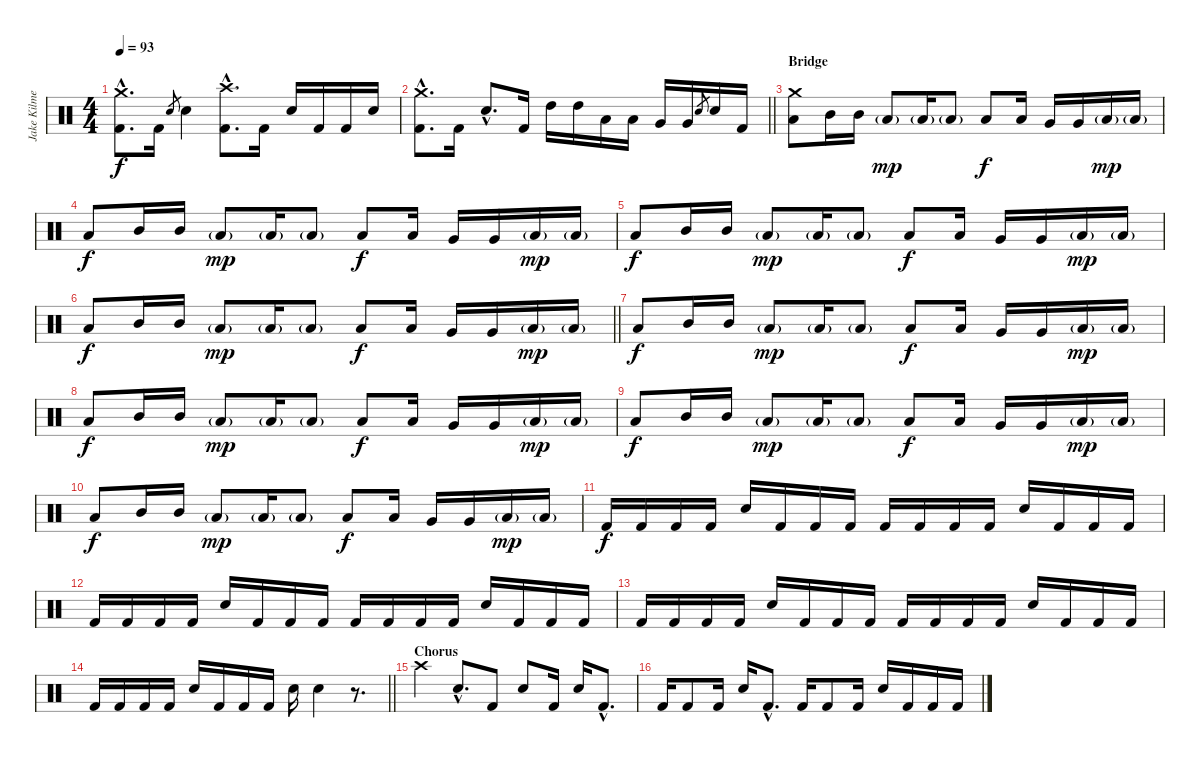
\track ("Jake Kilmer (Drums)" "Jake Kilme") {instrument percussion}
\staff {score}
\articulation defaults
\ts (4 4)
\tempo 93
\clef neutral
\ks c
("Crash medium (hit)"{hac} "Kick (hit) 2"{hac}).8{d dy f} "Kick (hit) 2".16 "Electric Snare (hit)".8{gr} "Electric Snare (hit)".4 ("Crash high (hit)"{hac} "Kick (hit) 2"{hac}).8{d} "Kick (hit) 2".16 "Electric Snare (hit)".16 "Kick (hit) 2".16 "Kick (hit) 2".16 "Electric Snare (hit)".16 |
\barLineRight lightlight
("Crash medium (hit)"{hac} "Kick (hit) 2"{hac}).8{d} "Kick (hit) 2".16 "Electric Snare (hit)"{hac}.8{d} "Kick (hit) 2".16 "High Tom (hit)".16 "High Tom (hit)".16 "Low Tom (hit)".16 "Low Tom (hit)".16 "Very Low Tom (hit)".16 "Very Low Tom (hit)".16 "Electric Snare (hit)".8{gr} "Electric Snare (hit)".16 "Kick (hit) 2".16 |
\section ("" "Bridge")
("Crash medium (hit)" "Low Tom (hit)").8 "Mid Tom (hit)".16 "Mid Tom (hit)".16 "Low Tom (hit)"{g}.8{dy mp} "Low Tom (hit)"{g}.16 "Low Tom (hit)"{g}.8 "Low Tom (hit)".8{dy f} "Low Tom (hit)".16 "Very Low Tom (hit)".16 "Very Low Tom (hit)".16 "Low Floor Tom (hit)"{g}.16{dy mp} "Low Floor Tom (hit)"{g}.16 |
"Low Tom (hit)".8{dy f} "Mid Tom (hit)".16 "Mid Tom (hit)".16 "Low Tom (hit)"{g}.8{dy mp} "Low Tom (hit)"{g}.16 "Low Tom (hit)"{g}.8 "Low Tom (hit)".8{dy f} "Low Tom (hit)".16 "Very Low Tom (hit)".16 "Very Low Tom (hit)".16 "Low Floor Tom (hit)"{g}.16{dy mp} "Low Floor Tom (hit)"{g}.16 |
"Low Tom (hit)".8{dy f} "Mid Tom (hit)".16 "Mid Tom (hit)".16 "Low Tom (hit)"{g}.8{dy mp} "Low Tom (hit)"{g}.16 "Low Tom (hit)"{g}.8 "Low Tom (hit)".8{dy f} "Low Tom (hit)".16 "Very Low Tom (hit)".16 "Very Low Tom (hit)".16 "Low Floor Tom (hit)"{g}.16{dy mp} "Low Floor Tom (hit)"{g}.16 |
\barLineRight lightlight "Low Tom (hit)".8{dy f} "Mid Tom (hit)".16 "Mid Tom (hit)".16 "Low Tom (hit)"{g}.8{dy mp} "Low Tom (hit)"{g}.16 "Low Tom (hit)"{g}.8 "Low Tom (hit)".8{dy f} "Low Tom (hit)".16 "Very Low Tom (hit)".16 "Very Low Tom (hit)".16 "Low Floor Tom (hit)"{g}.16{dy mp} "Low Floor Tom (hit)"{g}.16
|
"Low Tom (hit)".8{dy f} "Mid Tom (hit)".16 "Mid Tom (hit)".16 "Low Tom (hit)"{g}.8{dy mp} "Low Tom (hit)"{g}.16 "Low Tom (hit)"{g}.8 "Low Tom (hit)".8{dy f} "Low Tom (hit)".16 "Very Low Tom (hit)".16 "Very Low Tom (hit)".16 "Low Floor Tom (hit)"{g}.16{dy mp} "Low Floor Tom (hit)"{g}.16 |
"Low Tom (hit)".8{dy f} "Mid Tom (hit)".16 "Mid Tom (hit)".16 "Low Tom (hit)"{g}.8{dy mp} "Low Tom (hit)"{g}.16 "Low Tom (hit)"{g}.8 "Low Tom (hit)".8{dy f} "Low Tom (hit)".16 "Very Low Tom (hit)".16 "Very Low Tom (hit)".16 "Low Floor Tom (hit)"{g}.16{dy mp} "Low Floor Tom (hit)"{g}.16 |
"Low Tom (hit)".8{dy f} "Mid Tom (hit)".16 "Mid Tom (hit)".16 "Low Tom (hit)"{g}.8{dy mp} "Low Tom (hit)"{g}.16 "Low Tom (hit)"{g}.8 "Low Tom (hit)".8{dy f} "Low Tom (hit)".16 "Very Low Tom (hit)".16 "Very Low Tom (hit)".16 "Low Floor Tom (hit)"{g}.16{dy mp} "Low Floor Tom (hit)"{g}.16 |
"Low Tom (hit)".8{dy f} "Mid Tom (hit)".16 "Mid Tom (hit)".16 "Low Tom (hit)"{g}.8{dy mp} "Low Tom (hit)"{g}.16 "Low Tom (hit)"{g}.8 "Low Tom (hit)".8{dy f} "Low Tom (hit)".16 "Very Low Tom (hit)".16 "Very Low Tom (hit)".16 "Low Floor Tom (hit)"{g}.16{dy mp} "Low Floor Tom (hit)"{g}.16 |
"Kick (hit) 2".16{dy f} "Kick (hit) 2".16 "Kick (hit) 2".16 "Kick (hit) 2".16 "Electric Snare (hit)".16 "Kick (hit) 2".16 "Kick (hit) 2".16 "Kick (hit) 2".16 "Kick (hit) 2".16 "Kick (hit) 2".16 "Kick (hit) 2".16 "Kick (hit) 2".16 "Electric Snare (hit)".16 "Kick (hit) 2".16 "Kick (hit) 2".16 "Kick (hit) 2".16 |
"Kick (hit) 2".16 "Kick (hit) 2".16 "Kick (hit) 2".16 "Kick (hit) 2".16 "Electric Snare (hit)".16 "Kick (hit) 2".16 "Kick (hit) 2".16 "Kick (hit) 2".16 "Kick (hit) 2".16 "Kick (hit) 2".16 "Kick (hit) 2".16 "Kick (hit) 2".16 "Electric Snare (hit)".16 "Kick (hit) 2".16 "Kick (hit) 2".16 "Kick (hit) 2".16 |
"Kick (hit) 2".16 "Kick (hit) 2".16 "Kick (hit) 2".16 "Kick (hit) 2".16 "Electric Snare (hit)".16 "Kick (hit) 2".16 "Kick (hit) 2".16 "Kick (hit) 2".16 "Kick (hit) 2".16 "Kick (hit) 2".16 "Kick (hit) 2".16 "Kick (hit) 2".16 "Electric Snare (hit)".16 "Kick (hit) 2".16 "Kick (hit) 2".16 "Kick (hit) 2".16 |
\barLineRight lightlight "Kick (hit) 2".16 "Kick (hit) 2".16 "Kick (hit) 2".16 "Kick (hit) 2".16 "Electric Snare (hit)".16 "Kick (hit) 2".16 "Kick (hit) 2".16 "Kick (hit) 2".16 "Electric Snare (hit)".16 "Electric Snare (hit)".4
r.8{d} |
\section ("" "Chorus")
"Crash high (hit)".4 "Electric Snare (hit)"{hac}.8{d} "Kick (hit) 2".8 "Electric Snare (hit)".8 "Kick (hit) 2".16 "Electric Snare (hit)".16 "Kick (hit) 2"{hac}.8{d} |
"Kick (hit) 2".16 "Kick (hit) 2".8 "Kick (hit) 2".16 "Electric Snare (hit)".16 "Kick (hit) 2"{hac}.8{d} "Kick (hit) 2".16 "Kick (hit) 2".8 "Kick (hit) 2".16 "Electric Snare (hit)".16 "Kick (hit) 2".16 "Kick (hit) 2".16 "Kick (hit) 2".16
